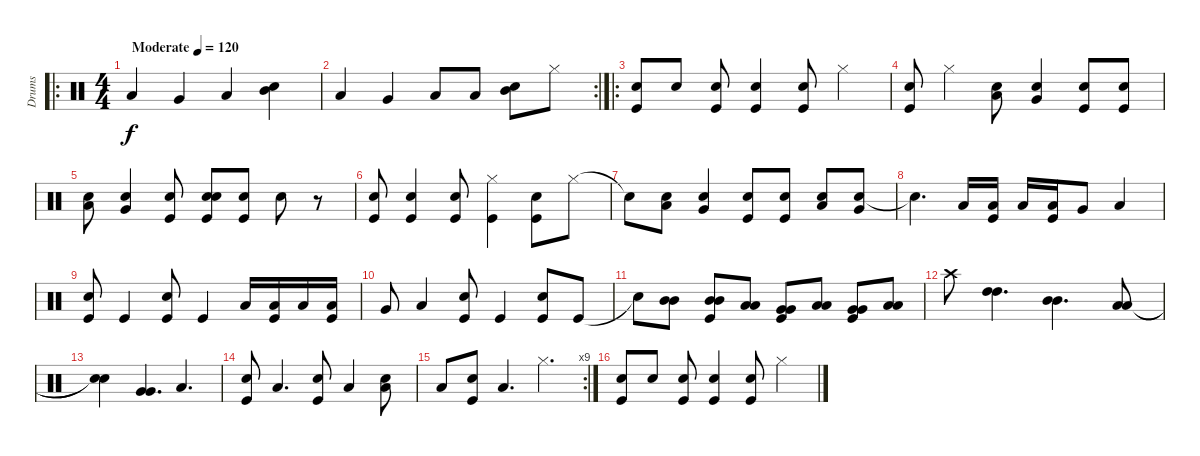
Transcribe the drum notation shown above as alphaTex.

\track ("Drums" "Drums") {instrument percussion}
\staff {score}
\articulation defaults
\ro
\ts (4 4)
\tempo (120 "Moderate")
\clef neutral
\ks c "Low Floor Tom (hit)".4{dy f} "Very Low Tom (hit)".4 "Low Tom (hit)".4
("Snare (hit) 2" "Mid Tom (hit)").4 |
\rc 2 "Low Floor Tom (hit)".4 "Very Low Tom (hit)".4 "Low Tom (hit)".8 "Low Tom (hit)".8
("Snare (hit) 2" "Mid Tom (hit)").8 "Hi-Hat (closed)".8 |
\ro
("Snare (hit) 2" "Kick (hit)").8 "Snare (hit) 2".8 ("Snare (hit) 2" "Kick (hit)").8 ("Snare (hit) 2" "Kick (hit)").4 ("Snare (hit) 2" "Kick (hit)").8 "Hi-Hat (closed)".4 |
("Snare (hit) 2" "Kick (hit)").8 "Hi-Hat (closed)".4 ("Snare (hit) 2" "Low Floor Tom (hit)").8 ("Snare (hit) 2" "Very Low Tom (hit)").4 ("Snare (hit) 2" "Kick (hit)").8 ("Snare (hit) 2" "Kick (hit)").8 |
("Snare (hit) 2" "Low Floor Tom (hit)").8 ("Snare (hit) 2" "Very Low Tom (hit)").4 ("Snare (hit) 2" "Kick (hit)").8 ("Snare (hit) 2" "Snare (hit) 2" "Kick (hit)").8 ("Snare (hit) 2" "Kick (hit)").8 "Snare (hit) 2".8 r.8 |
("Snare (hit) 2" "Kick (hit)").8 ("Snare (hit) 2" "Kick (hit)").4 ("Snare (hit) 2" "Kick (hit)").8 ("Hi-Hat (closed)" "Kick (hit)").4 ("Snare (hit) 2" "Kick (hit)").8 "Hi-Hat (closed)".8 |
"Snare (hit)"{t}.8 ("Snare (hit) 2" "Low Floor Tom (hit)").8 ("Snare (hit) 2" "Very Low Tom (hit)").4 ("Snare (hit) 2" "Kick (hit)").8 ("Snare (hit) 2" "Kick (hit)").8 ("Snare (hit) 2" "Low Floor Tom (hit)").8 ("Snare (hit) 2" "Very Low Tom (hit)").8 |
"Snare (hit)"{t}.4{d} "Low Tom (hit)".16 ("Low Tom (hit)" "Kick (hit)").16 "Low Tom (hit)".16 ("Low Tom (hit)" "Kick (hit)").16 "Very Low Tom (hit)".8 "Low Floor Tom (hit)".4 |
("Snare (hit) 2" "Kick (hit)").8 "Kick (hit)".4 ("Snare (hit) 2" "Kick (hit)").8 "Kick (hit)".4 "Low Tom (hit)".16 ("Low Tom (hit)" "Kick (hit)").16 "Low Tom (hit)".16 ("Low Tom (hit)" "Kick (hit)").16 |
"Very Low Tom (hit)".8 "Low Floor Tom (hit)".4 ("Snare (hit) 2" "Kick (hit)").8 "Kick (hit)".4 ("Snare (hit) 2" "Kick (hit)").8 "Kick (hit)".8 |
"Snare (hit)"{t}.8 ("Mid Tom (hit)" "Mid Tom (hit)").8 ("Mid Tom (hit)" "Mid Tom (hit)" "Kick (hit)").8 ("Low Tom (hit)" "Low Tom (hit)").8 ("Very Low Tom (hit)" "Very Low Tom (hit)" "Kick (hit)").8 ("Low Tom (hit)" "Low Tom (hit)").8 ("Very Low Tom (hit)" "Very Low Tom (hit)" "Kick (hit)").8 ("Low Floor Tom (hit)" "Low Floor Tom (hit)").8 |
"Crash high (hit)".8 ("High Tom (hit)" "High Tom (hit)").4{d} ("Mid Tom (hit)" "Mid Tom (hit)").4{d} ("Low Tom (hit)" "Low Tom (hit)").8 |
("Snare (hit)"{t} "Snare (hit)"{t}).4 ("Very Low Tom (hit)" "Very Low Tom (hit)").4{d} "Low Floor Tom (hit)".4{d} |
("Snare (hit) 2" "Kick (hit)").8 "Low Floor Tom (hit)".4{d} ("Snare (hit) 2" "Kick (hit)").8 "Low Floor Tom (hit)".4 ("Snare (hit) 2" "Low Floor Tom (hit)").8 |
\rc 9 "Low Floor Tom (hit)".8
("Snare (hit) 2" "Kick (hit)").8 "Low Floor Tom (hit)".4{d} "Hi-Hat (closed)".4{d} |
("Snare (hit) 2" "Kick (hit)").8 "Snare (hit) 2".8 ("Snare (hit) 2" "Kick (hit)").8 ("Snare (hit) 2" "Kick (hit)").4 ("Snare (hit) 2" "Kick (hit)").8 "Hi-Hat (closed)".4
